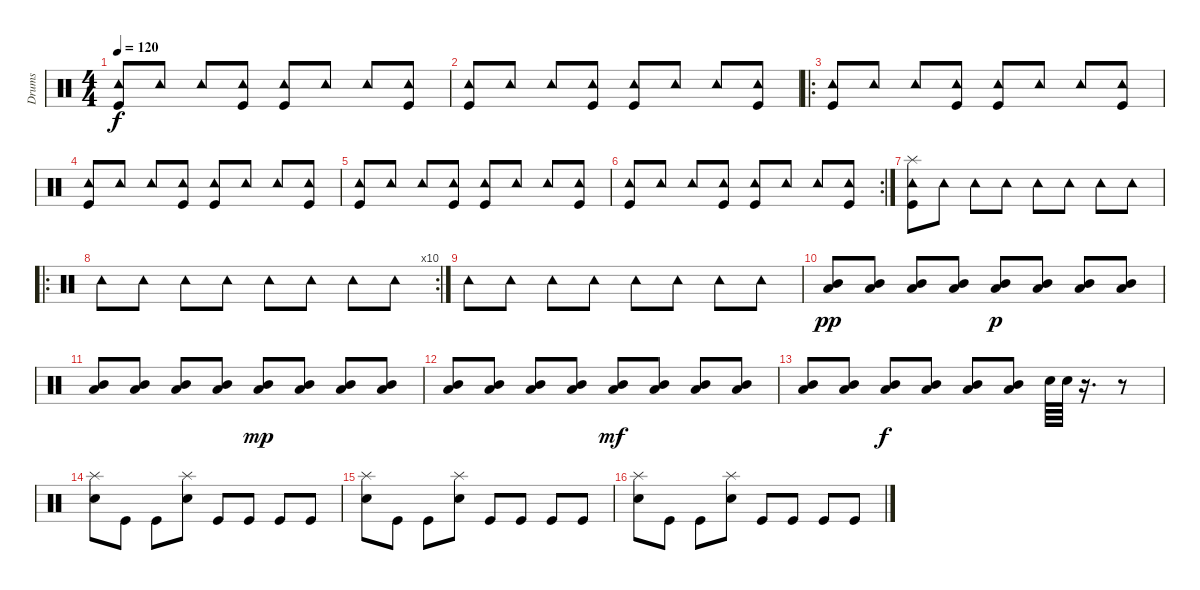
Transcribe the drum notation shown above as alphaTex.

\track ("Drums" "Drums") {instrument percussion}
\staff {score}
\articulation defaults
\ts (4 4)
\tempo 120
\clef neutral
\ks c
("Tambourine (hit)" "Kick (hit)").8{dy f} "Tambourine (hit)".8 "Tambourine (hit)".8 ("Tambourine (hit)" "Kick (hit)").8 ("Tambourine (hit)" "Kick (hit)").8 "Tambourine (hit)".8 "Tambourine (hit)".8 ("Tambourine (hit)" "Kick (hit)").8 |
("Tambourine (hit)" "Kick (hit)").8 "Tambourine (hit)".8 "Tambourine (hit)".8 ("Tambourine (hit)" "Kick (hit)").8 ("Tambourine (hit)" "Kick (hit)").8 "Tambourine (hit)".8 "Tambourine (hit)".8 ("Tambourine (hit)" "Kick (hit)").8 |
\ro
("Tambourine (hit)" "Kick (hit)").8 "Tambourine (hit)".8 "Tambourine (hit)".8 ("Tambourine (hit)" "Kick (hit)").8 ("Tambourine (hit)" "Kick (hit)").8 "Tambourine (hit)".8 "Tambourine (hit)".8 ("Tambourine (hit)" "Kick (hit)").8 |
("Tambourine (hit)" "Kick (hit)").8 "Tambourine (hit)".8 "Tambourine (hit)".8 ("Tambourine (hit)" "Kick (hit)").8 ("Tambourine (hit)" "Kick (hit)").8 "Tambourine (hit)".8 "Tambourine (hit)".8 ("Tambourine (hit)" "Kick (hit)").8 |
("Tambourine (hit)" "Kick (hit)").8 "Tambourine (hit)".8 "Tambourine (hit)".8 ("Tambourine (hit)" "Kick (hit)").8 ("Tambourine (hit)" "Kick (hit)").8 "Tambourine (hit)".8 "Tambourine (hit)".8 ("Tambourine (hit)" "Kick (hit)").8 |
\rc 2
("Tambourine (hit)" "Kick (hit)").8 "Tambourine (hit)".8 "Tambourine (hit)".8 ("Tambourine (hit)" "Kick (hit)").8 ("Tambourine (hit)" "Kick (hit)").8 "Tambourine (hit)".8 "Tambourine (hit)".8 ("Tambourine (hit)" "Kick (hit)").8 |
("Tambourine (hit)" "Kick (hit)" "Splash (hit)").8 "Tambourine (hit)".8 "Tambourine (hit)".8 "Tambourine (hit)".8 "Tambourine (hit)".8 "Tambourine (hit)".8 "Tambourine (hit)".8 "Tambourine (hit)".8 |
\ro
\rc 10 "Tambourine (hit)".8 "Tambourine (hit)".8 "Tambourine (hit)".8 "Tambourine (hit)".8 "Tambourine (hit)".8 "Tambourine (hit)".8 "Tambourine (hit)".8 "Tambourine (hit)".8
|
"Tambourine (hit)".8 "Tambourine (hit)".8 "Tambourine (hit)".8 "Tambourine (hit)".8 "Tambourine (hit)".8 "Tambourine (hit)".8 "Tambourine (hit)".8 "Tambourine (hit)".8 |
("Mid Tom (hit)" "Low Tom (hit)").8{dy pp} ("Mid Tom (hit)" "Low Tom (hit)").8 ("Mid Tom (hit)" "Low Tom (hit)").8 ("Mid Tom (hit)" "Low Tom (hit)").8 ("Mid Tom (hit)" "Low Tom (hit)").8{dy p} ("Mid Tom (hit)" "Low Tom (hit)").8 ("Mid Tom (hit)" "Low Tom (hit)").8 ("Mid Tom (hit)" "Low Tom (hit)").8 |
("Mid Tom (hit)" "Low Tom (hit)").8 ("Mid Tom (hit)" "Low Tom (hit)").8 ("Mid Tom (hit)" "Low Tom (hit)").8 ("Mid Tom (hit)" "Low Tom (hit)").8 ("Mid Tom (hit)" "Low Tom (hit)").8{dy mp} ("Mid Tom (hit)" "Low Tom (hit)").8 ("Mid Tom (hit)" "Low Tom (hit)").8 ("Mid Tom (hit)" "Low Tom (hit)").8 |
("Mid Tom (hit)" "Low Tom (hit)").8 ("Mid Tom (hit)" "Low Tom (hit)").8 ("Mid Tom (hit)" "Low Tom (hit)").8 ("Mid Tom (hit)" "Low Tom (hit)").8 ("Mid Tom (hit)" "Low Tom (hit)").8{dy mf} ("Mid Tom (hit)" "Low Tom (hit)").8 ("Mid Tom (hit)" "Low Tom (hit)").8 ("Mid Tom (hit)" "Low Tom (hit)").8 |
("Mid Tom (hit)" "Low Tom (hit)").8 ("Mid Tom (hit)" "Low Tom (hit)").8 ("Mid Tom (hit)" "Low Tom (hit)").8{dy f} ("Mid Tom (hit)" "Low Tom (hit)").8 ("Mid Tom (hit)" "Low Tom (hit)").8 ("Mid Tom (hit)" "Low Tom (hit)").8 "Snare (hit) 2".64 "Snare (hit) 2".64 r.16{d} r.8 |
("Splash (hit)" "Snare (hit) 2").8 "Kick (hit)".8 "Kick (hit)".8 ("Splash (hit)" "Snare (hit) 2").8 "Kick (hit)".8 "Kick (hit)".8 "Kick (hit)".8 "Kick (hit)".8 |
("Splash (hit)" "Snare (hit) 2").8 "Kick (hit)".8 "Kick (hit)".8 ("Splash (hit)" "Snare (hit) 2").8 "Kick (hit)".8 "Kick (hit)".8 "Kick (hit)".8 "Kick (hit)".8 |
("Splash (hit)" "Snare (hit) 2").8 "Kick (hit)".8 "Kick (hit)".8 ("Splash (hit)" "Snare (hit) 2").8 "Kick (hit)".8 "Kick (hit)".8 "Kick (hit)".8 "Kick (hit)".8
